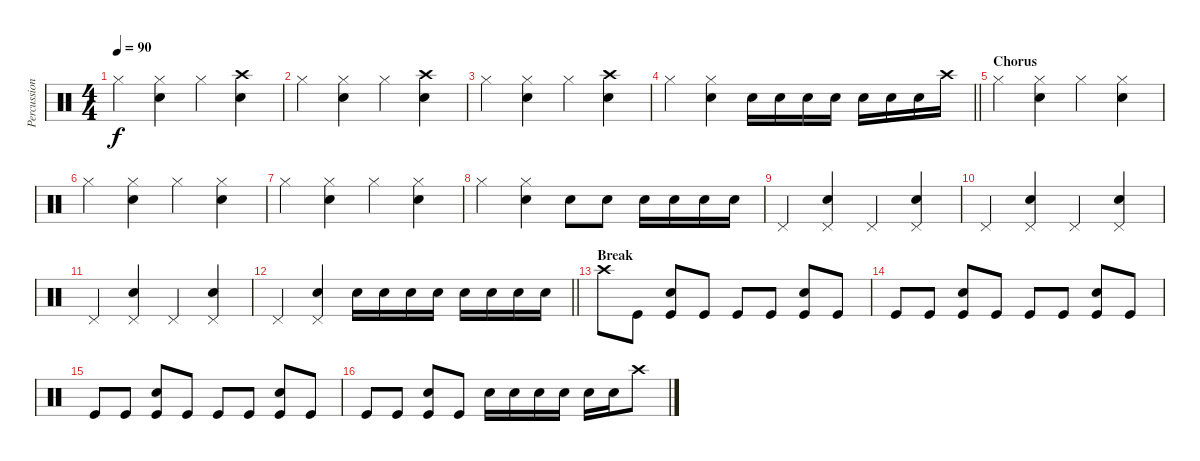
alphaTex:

\track ("Percussion" "Percussion") {instrument percussion}
\staff {score}
\articulation defaults
\ts (4 4)
\tempo 90
\clef neutral
\ks c "Hi-Hat (closed)".4{dy f}
("Hi-Hat (closed)" "Electric Snare (hit)").4 "Hi-Hat (closed)".4 ("Crash high (hit)" "Electric Snare (hit)").4 |
"Hi-Hat (closed)".4 ("Hi-Hat (closed)" "Electric Snare (hit)").4 "Hi-Hat (closed)".4 ("Crash high (hit)" "Electric Snare (hit)").4 |
"Hi-Hat (closed)".4 ("Hi-Hat (closed)" "Electric Snare (hit)").4 "Hi-Hat (closed)".4 ("Crash high (hit)" "Electric Snare (hit)").4 |
\barLineRight lightlight "Hi-Hat (closed)".4
("Hi-Hat (closed)" "Electric Snare (hit)").4 "Snare (hit) 2".16 "Electric Snare (hit)".16 "Snare (hit) 2".16 "Electric Snare (hit)".16 "Snare (hit) 2".16 "Electric Snare (hit)".16 "Snare (hit) 2".16 "Crash high (hit)".16 |
\section ("" "Chorus")
"Hi-Hat (closed)".4 ("Hi-Hat (closed)" "Snare (hit) 2").4 "Hi-Hat (closed)".4 ("Hi-Hat (closed)" "Snare (hit) 2").4 |
"Hi-Hat (closed)".4 ("Hi-Hat (closed)" "Snare (hit) 2").4 "Hi-Hat (closed)".4 ("Hi-Hat (closed)" "Snare (hit) 2").4 |
"Hi-Hat (closed)".4 ("Hi-Hat (closed)" "Snare (hit) 2").4 "Hi-Hat (closed)".4 ("Hi-Hat (closed)" "Snare (hit) 2").4 |
"Hi-Hat (closed)".4 ("Hi-Hat (closed)" "Snare (hit) 2").4 "Snare (hit) 2".8 "Electric Snare (hit)".8 "Snare (hit) 2".16 "Electric Snare (hit)".16 "Snare (hit) 2".16 "Electric Snare (hit)".16 |
"Pedal Hi-Hat (hit)".4 ("Pedal Hi-Hat (hit)" "Electric Snare (hit)").4 "Pedal Hi-Hat (hit)".4 ("Pedal Hi-Hat (hit)" "Electric Snare (hit)").4 |
"Pedal Hi-Hat (hit)".4 ("Pedal Hi-Hat (hit)" "Electric Snare (hit)").4 "Pedal Hi-Hat (hit)".4 ("Pedal Hi-Hat (hit)" "Electric Snare (hit)").4 |
"Pedal Hi-Hat (hit)".4 ("Pedal Hi-Hat (hit)" "Electric Snare (hit)").4 "Pedal Hi-Hat (hit)".4 ("Pedal Hi-Hat (hit)" "Electric Snare (hit)").4 |
\barLineRight lightlight "Pedal Hi-Hat (hit)".4
("Pedal Hi-Hat (hit)" "Electric Snare (hit)").4 "Snare (hit) 2".16 "Electric Snare (hit)".16 "Snare (hit) 2".16 "Electric Snare (hit)".16 "Snare (hit) 2".16 "Electric Snare (hit)".16 "Snare (hit) 2".16 "Electric Snare (hit)".16 |
\section ("" "Break")
"Crash high (hit)".8 "Kick (hit)".8 ("Kick (hit)" "Snare (hit) 2").8 "Kick (hit)".8 "Kick (hit)".8 "Kick (hit)".8 ("Kick (hit)" "Snare (hit) 2").8 "Kick (hit)".8 |
"Kick (hit)".8 "Kick (hit)".8 ("Kick (hit)" "Snare (hit) 2").8 "Kick (hit)".8 "Kick (hit)".8 "Kick (hit)".8 ("Kick (hit)" "Snare (hit) 2").8 "Kick (hit)".8 |
"Kick (hit)".8 "Kick (hit)".8 ("Kick (hit)" "Snare (hit) 2").8 "Kick (hit)".8 "Kick (hit)".8 "Kick (hit)".8 ("Kick (hit)" "Snare (hit) 2").8 "Kick (hit)".8 |
"Kick (hit)".8 "Kick (hit)".8 ("Kick (hit)" "Snare (hit) 2").8 "Kick (hit)".8 "Snare (hit) 2".16 "Electric Snare (hit)".16 "Snare (hit) 2".16 "Electric Snare (hit)".16 "Snare (hit) 2".16 "Electric Snare (hit)".16 "Crash high (hit)".8
